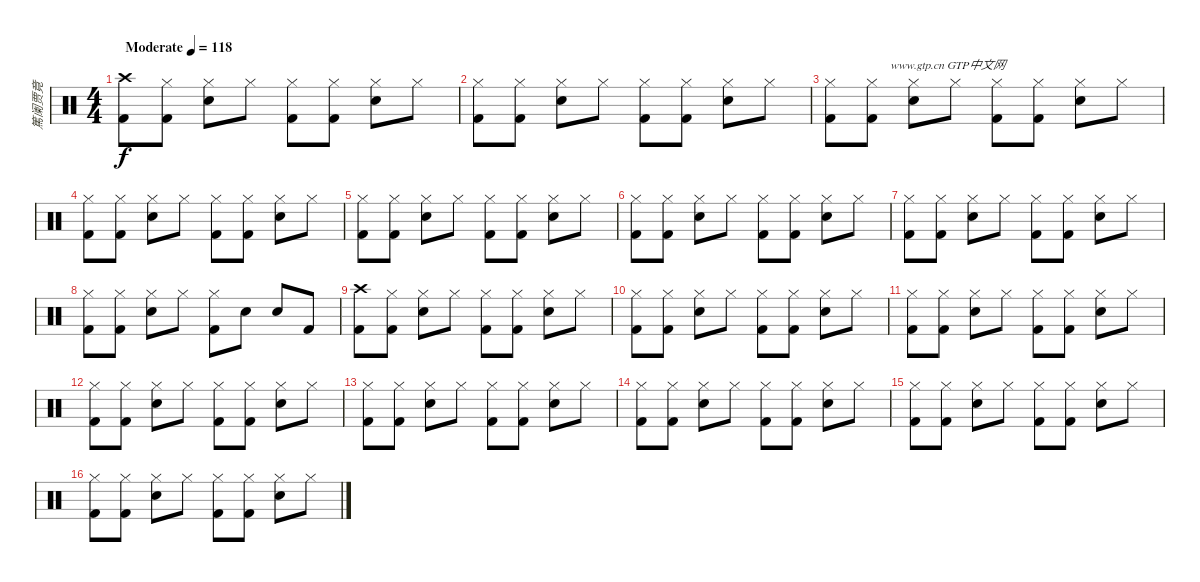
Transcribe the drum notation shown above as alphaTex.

\track ("篤阑贾竟" "篤阑贾竟") {instrument percussion}
\staff {score}
\articulation defaults
\ts (4 4)
\tempo (118 "Moderate")
\clef neutral
\ks c
("Crash high (hit)" "Kick (hit) 2").8{dy f} ("Hi-Hat (closed)" "Kick (hit) 2").8 ("Hi-Hat (closed)" "Snare (hit) 2").8 "Hi-Hat (closed)".8 ("Hi-Hat (closed)" "Kick (hit) 2").8 ("Hi-Hat (closed)" "Kick (hit) 2").8 ("Hi-Hat (closed)" "Snare (hit) 2").8 "Hi-Hat (closed)".8 |
("Hi-Hat (closed)" "Kick (hit) 2").8 ("Hi-Hat (closed)" "Kick (hit) 2").8 ("Hi-Hat (closed)" "Snare (hit) 2").8 "Hi-Hat (closed)".8 ("Hi-Hat (closed)" "Kick (hit) 2").8 ("Hi-Hat (closed)" "Kick (hit) 2").8 ("Hi-Hat (closed)" "Snare (hit) 2").8 "Hi-Hat (closed)".8 |
("Hi-Hat (closed)" "Kick (hit) 2").8{txt "                    www.gtp.cn GTP中文网"} ("Hi-Hat (closed)" "Kick (hit) 2").8 ("Hi-Hat (closed)" "Snare (hit) 2").8 "Hi-Hat (closed)".8 ("Hi-Hat (closed)" "Kick (hit) 2").8 ("Hi-Hat (closed)" "Kick (hit) 2").8 ("Hi-Hat (closed)" "Snare (hit) 2").8 "Hi-Hat (closed)".8 |
("Hi-Hat (closed)" "Kick (hit) 2").8 ("Hi-Hat (closed)" "Kick (hit) 2").8 ("Hi-Hat (closed)" "Snare (hit) 2").8 "Hi-Hat (closed)".8 ("Hi-Hat (closed)" "Kick (hit) 2").8 ("Hi-Hat (closed)" "Kick (hit) 2").8 ("Hi-Hat (closed)" "Snare (hit) 2").8 "Hi-Hat (closed)".8 |
("Hi-Hat (closed)" "Kick (hit) 2").8 ("Hi-Hat (closed)" "Kick (hit) 2").8 ("Hi-Hat (closed)" "Snare (hit) 2").8 "Hi-Hat (closed)".8 ("Hi-Hat (closed)" "Kick (hit) 2").8 ("Hi-Hat (closed)" "Kick (hit) 2").8 ("Hi-Hat (closed)" "Snare (hit) 2").8 "Hi-Hat (closed)".8 |
("Hi-Hat (closed)" "Kick (hit) 2").8 ("Hi-Hat (closed)" "Kick (hit) 2").8 ("Hi-Hat (closed)" "Snare (hit) 2").8 "Hi-Hat (closed)".8 ("Hi-Hat (closed)" "Kick (hit) 2").8 ("Hi-Hat (closed)" "Kick (hit) 2").8 ("Hi-Hat (closed)" "Snare (hit) 2").8 "Hi-Hat (closed)".8 |
("Hi-Hat (closed)" "Kick (hit) 2").8 ("Hi-Hat (closed)" "Kick (hit) 2").8 ("Hi-Hat (closed)" "Snare (hit) 2").8 "Hi-Hat (closed)".8 ("Hi-Hat (closed)" "Kick (hit) 2").8 ("Hi-Hat (closed)" "Kick (hit) 2").8 ("Hi-Hat (closed)" "Snare (hit) 2").8 "Hi-Hat (closed)".8 |
("Hi-Hat (closed)" "Kick (hit) 2").8 ("Hi-Hat (closed)" "Kick (hit) 2").8 ("Hi-Hat (closed)" "Snare (hit) 2").8 "Hi-Hat (closed)".8 ("Hi-Hat (closed)" "Kick (hit) 2").8 "Snare (hit) 2".8 "Snare (hit) 2".8 "Kick (hit) 2".8 |
("Crash high (hit)" "Kick (hit) 2").8 ("Hi-Hat (closed)" "Kick (hit) 2").8 ("Hi-Hat (closed)" "Snare (hit) 2").8 "Hi-Hat (closed)".8 ("Hi-Hat (closed)" "Kick (hit) 2").8 ("Hi-Hat (closed)" "Kick (hit) 2").8 ("Hi-Hat (closed)" "Snare (hit) 2").8 "Hi-Hat (closed)".8 |
("Hi-Hat (closed)" "Kick (hit) 2").8 ("Hi-Hat (closed)" "Kick (hit) 2").8 ("Hi-Hat (closed)" "Snare (hit) 2").8 "Hi-Hat (closed)".8 ("Hi-Hat (closed)" "Kick (hit) 2").8 ("Hi-Hat (closed)" "Kick (hit) 2").8 ("Hi-Hat (closed)" "Snare (hit) 2").8 "Hi-Hat (closed)".8 |
("Hi-Hat (closed)" "Kick (hit) 2").8 ("Hi-Hat (closed)" "Kick (hit) 2").8 ("Hi-Hat (closed)" "Snare (hit) 2").8 "Hi-Hat (closed)".8 ("Hi-Hat (closed)" "Kick (hit) 2").8 ("Hi-Hat (closed)" "Kick (hit) 2").8 ("Hi-Hat (closed)" "Snare (hit) 2").8 "Hi-Hat (closed)".8 |
("Hi-Hat (closed)" "Kick (hit) 2").8 ("Hi-Hat (closed)" "Kick (hit) 2").8 ("Hi-Hat (closed)" "Snare (hit) 2").8 "Hi-Hat (closed)".8 ("Hi-Hat (closed)" "Kick (hit) 2").8 ("Hi-Hat (closed)" "Kick (hit) 2").8 ("Hi-Hat (closed)" "Snare (hit) 2").8 "Hi-Hat (closed)".8 |
("Hi-Hat (closed)" "Kick (hit) 2").8 ("Hi-Hat (closed)" "Kick (hit) 2").8 ("Hi-Hat (closed)" "Snare (hit) 2").8 "Hi-Hat (closed)".8 ("Hi-Hat (closed)" "Kick (hit) 2").8 ("Hi-Hat (closed)" "Kick (hit) 2").8 ("Hi-Hat (closed)" "Snare (hit) 2").8 "Hi-Hat (closed)".8 |
("Hi-Hat (closed)" "Kick (hit) 2").8 ("Hi-Hat (closed)" "Kick (hit) 2").8 ("Hi-Hat (closed)" "Snare (hit) 2").8 "Hi-Hat (closed)".8 ("Hi-Hat (closed)" "Kick (hit) 2").8 ("Hi-Hat (closed)" "Kick (hit) 2").8 ("Hi-Hat (closed)" "Snare (hit) 2").8 "Hi-Hat (closed)".8 |
("Hi-Hat (closed)" "Kick (hit) 2").8 ("Hi-Hat (closed)" "Kick (hit) 2").8 ("Hi-Hat (closed)" "Snare (hit) 2").8 "Hi-Hat (closed)".8 ("Hi-Hat (closed)" "Kick (hit) 2").8 ("Hi-Hat (closed)" "Kick (hit) 2").8 ("Hi-Hat (closed)" "Snare (hit) 2").8 "Hi-Hat (closed)".8 |
("Hi-Hat (closed)" "Kick (hit) 2").8 ("Hi-Hat (closed)" "Kick (hit) 2").8 ("Hi-Hat (closed)" "Snare (hit) 2").8 "Hi-Hat (closed)".8 ("Hi-Hat (closed)" "Kick (hit) 2").8 ("Hi-Hat (closed)" "Kick (hit) 2").8 ("Hi-Hat (closed)" "Snare (hit) 2").8 "Hi-Hat (closed)".8
